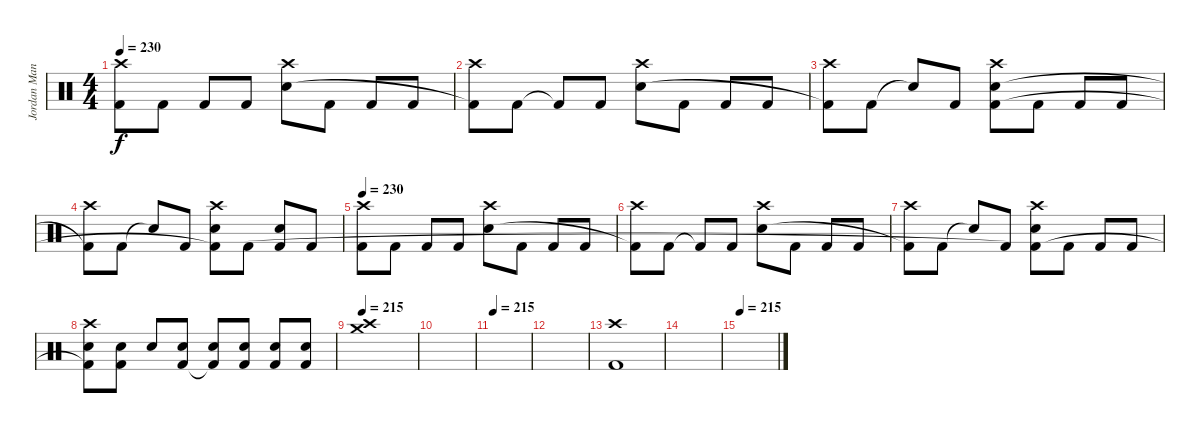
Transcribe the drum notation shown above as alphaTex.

\track ("Jordan Mancino" "Jordan Man") {instrument percussion}
\staff {score}
\articulation defaults
\ts (4 4)
\tempo 230
\clef neutral
\ks c
("Crash high (hit)" "Kick (hit) 2").8{dy f} "Kick (hit) 2".8 "Kick (hit) 2".8 "Kick (hit) 2".8 ("Crash high (hit)" "Electric Snare (hit)").8 "Kick (hit) 2".8 "Kick (hit) 2".8 "Kick (hit) 2".8 |
("Crash high (hit)" "Kick (hit) 2"{t}).8 "Kick (hit) 2".8 "Kick (hit) 2"{t}.8 "Kick (hit) 2".8 ("Crash high (hit)" "Electric Snare (hit)").8 "Kick (hit) 2".8 "Kick (hit) 2".8 "Kick (hit) 2".8 |
("Crash high (hit)" "Kick (hit) 2"{t}).8 "Kick (hit) 2".8 "Snare (hit)"{t}.8 "Kick (hit) 2".8 ("Crash high (hit)" "Electric Snare (hit)" "Kick (hit) 2"{t}).8 "Kick (hit) 2".8 "Kick (hit) 2".8 "Kick (hit) 2".8 |
("Crash high (hit)" "Kick (hit) 2"{t}).8 "Kick (hit) 2".8 "Snare (hit)"{t}.8 "Kick (hit) 2".8 ("Crash high (hit)" "Electric Snare (hit)" "Kick (hit) 2"{t}).8 "Kick (hit) 2".8 ("Electric Snare (hit)" "Kick (hit) 2").8 "Kick (hit) 2".8 |
\tempo 230
("Crash high (hit)" "Kick (hit) 2").8 "Kick (hit) 2".8 "Kick (hit) 2".8 "Kick (hit) 2".8 ("Crash high (hit)" "Electric Snare (hit)").8 "Kick (hit) 2".8 "Kick (hit) 2".8 "Kick (hit) 2".8 |
("Crash high (hit)" "Kick (hit) 2"{t}).8 "Kick (hit) 2".8 "Kick (hit) 2"{t}.8 "Kick (hit) 2".8 ("Crash high (hit)" "Electric Snare (hit)").8 "Kick (hit) 2".8 "Kick (hit) 2".8 "Kick (hit) 2".8 |
("Crash high (hit)" "Kick (hit) 2"{t}).8 "Kick (hit) 2".8 "Snare (hit)"{t}.8 "Kick (hit) 2".8 ("Crash high (hit)" "Electric Snare (hit)" "Kick (hit) 2"{t}).8 "Kick (hit) 2".8 "Kick (hit) 2".8 "Kick (hit) 2".8 |
("Crash high (hit)" "Electric Snare (hit)" "Kick (hit) 2"{t}).8 ("Electric Snare (hit)" "Kick (hit) 2").8 "Electric Snare (hit)".8 ("Electric Snare (hit)" "Kick (hit) 2").8 ("Electric Snare (hit)" "Kick (hit) 2"{t}).8 ("Electric Snare (hit)" "Kick (hit) 2").8 ("Electric Snare (hit)" "Kick (hit) 2").8 ("Electric Snare (hit)" "Kick (hit) 2").8 |
\tempo 215
("Crash high (hit)" "Crash medium (hit)").1 |
|
\tempo 215
|
|
("Crash high (hit)" "Kick (hit) 2").1 |
|
\tempo 215
